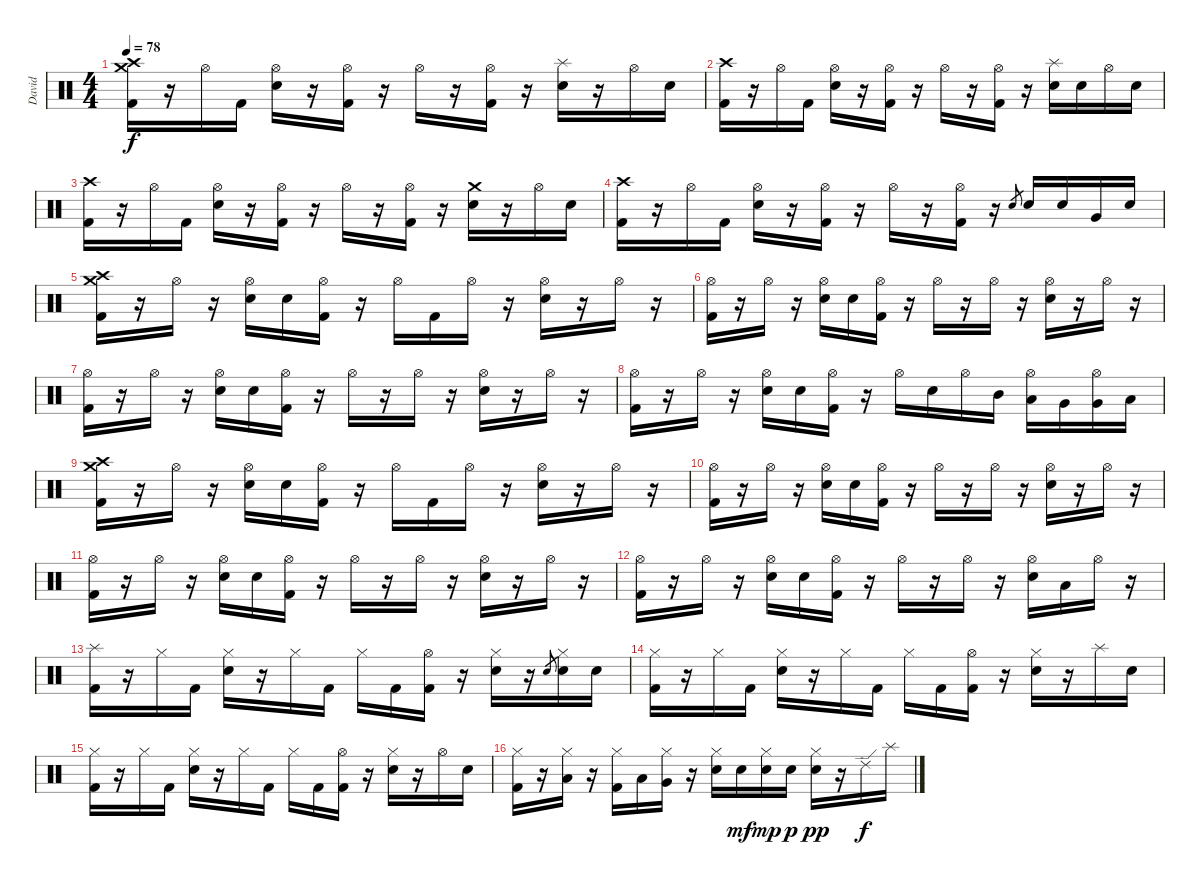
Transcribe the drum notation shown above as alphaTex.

\track ("David" "David") {instrument percussion}
\staff {score}
\articulation defaults
\ts (4 4)
\tempo 78
\clef neutral
\ks c
("Crash high (hit)" "Crash medium (hit)" "Kick (hit) 2").16{dy f} r.16 "Hi-Hat (open)".16 "Kick (hit) 2".16 ("Hi-Hat (open)" "Snare (hit) 2").16 r.16 ("Hi-Hat (open)" "Kick (hit) 2").16 r.16 "Hi-Hat (open)".16 r.16 ("Hi-Hat (open)" "Kick (hit) 2").16 r.16 ("Splash (hit)" "Snare (hit) 2").16 r.16 "Hi-Hat (open)".16 "Snare (hit) 2".16 |
("Crash high (hit)" "Kick (hit) 2").16 r.16 "Hi-Hat (open)".16 "Kick (hit) 2".16 ("Hi-Hat (open)" "Snare (hit) 2").16 r.16 ("Hi-Hat (open)" "Kick (hit) 2").16 r.16 "Hi-Hat (open)".16 r.16 ("Hi-Hat (open)" "Kick (hit) 2").16 r.16 ("Splash (hit)" "Snare (hit) 2").16 "Snare (hit) 2".16 "Hi-Hat (open)".16 "Snare (hit) 2".16 |
("Crash high (hit)" "Kick (hit) 2").16 r.16 "Hi-Hat (open)".16 "Kick (hit) 2".16 ("Hi-Hat (open)" "Snare (hit) 2").16 r.16 ("Hi-Hat (open)" "Kick (hit) 2").16 r.16 "Hi-Hat (open)".16 r.16 ("Hi-Hat (open)" "Kick (hit) 2").16 r.16 ("Crash medium (hit)" "Snare (hit) 2").16 r.16 "Hi-Hat (open)".16 "Snare (hit) 2".16 |
("Crash high (hit)" "Kick (hit) 2").16 r.16 "Hi-Hat (open)".16 "Kick (hit) 2".16 ("Hi-Hat (open)" "Snare (hit) 2").16 r.16 ("Hi-Hat (open)" "Kick (hit) 2").16 r.16 "Hi-Hat (open)".16 r.16 ("Hi-Hat (open)" "Kick (hit) 2").16 r.16 "Snare (hit) 2".8{gr} "Snare (hit) 2".16 "Snare (hit) 2".16 "Very Low Tom (hit)".16 "Snare (hit) 2"{x}.16 |
("Crash high (hit)" "Crash medium (hit)" "Kick (hit) 2").16 r.16 "Hi-Hat (open)".16 r.16 ("Hi-Hat (open)" "Snare (hit) 2").16 "Snare (hit) 2".16 ("Hi-Hat (open)" "Kick (hit) 2").16 r.16 "Hi-Hat (open)".16 "Kick (hit) 2".16 "Hi-Hat (open)".16 r.16 ("Hi-Hat (open)" "Snare (hit) 2").16 r.16 "Hi-Hat (open)".16 r.16 |
("Hi-Hat (open)" "Kick (hit) 2").16 r.16 "Hi-Hat (open)".16 r.16 ("Hi-Hat (open)" "Snare (hit) 2").16 "Snare (hit) 2".16 ("Hi-Hat (open)" "Kick (hit) 2").16 r.16 "Hi-Hat (open)".16 r.16 "Hi-Hat (open)".16 r.16 ("Hi-Hat (open)" "Snare (hit) 2").16 r.16 "Hi-Hat (open)".16 r.16 |
("Hi-Hat (open)" "Kick (hit) 2").16 r.16 "Hi-Hat (open)".16 r.16 ("Hi-Hat (open)" "Snare (hit) 2").16 "Snare (hit) 2".16 ("Hi-Hat (open)" "Kick (hit) 2").16 r.16 "Hi-Hat (open)".16 r.16 "Hi-Hat (open)".16 r.16 ("Hi-Hat (open)" "Snare (hit) 2").16 r.16 "Hi-Hat (open)".16 r.16 |
("Hi-Hat (open)" "Kick (hit) 2").16 r.16 "Hi-Hat (open)".16 r.16 ("Hi-Hat (open)" "Snare (hit) 2").16 "Snare (hit) 2".16 ("Hi-Hat (open)" "Kick (hit) 2").16 r.16 "Hi-Hat (open)".16 "Snare (hit) 2".16 "Hi-Hat (open)".16 "Mid Tom (hit)".16 ("Hi-Hat (open)" "Low Tom (hit)").16 "Very Low Tom (hit)".16 ("Hi-Hat (open)" "Very Low Tom (hit)").16 "Low Floor Tom (hit)".16 |
("Crash high (hit)" "Crash medium (hit)" "Kick (hit) 2").16 r.16 "Hi-Hat (open)".16 r.16 ("Hi-Hat (open)" "Snare (hit) 2").16 "Snare (hit) 2".16 ("Hi-Hat (open)" "Kick (hit) 2").16 r.16 "Hi-Hat (open)".16 "Kick (hit) 2".16 "Hi-Hat (open)".16 r.16 ("Hi-Hat (open)" "Snare (hit) 2").16 r.16 "Hi-Hat (open)".16 r.16 |
("Hi-Hat (open)" "Kick (hit) 2").16 r.16 "Hi-Hat (open)".16 r.16 ("Hi-Hat (open)" "Snare (hit) 2").16 "Snare (hit) 2".16 ("Hi-Hat (open)" "Kick (hit) 2").16 r.16 "Hi-Hat (open)".16 r.16 "Hi-Hat (open)".16 r.16 ("Hi-Hat (open)" "Snare (hit) 2").16 r.16 "Hi-Hat (open)".16 r.16 |
("Hi-Hat (open)" "Kick (hit) 2").16 r.16 "Hi-Hat (open)".16 r.16 ("Hi-Hat (open)" "Snare (hit) 2").16 "Snare (hit) 2".16 ("Hi-Hat (open)" "Kick (hit) 2").16 r.16 "Hi-Hat (open)".16 r.16 "Hi-Hat (open)".16 r.16 ("Hi-Hat (open)" "Snare (hit) 2").16 r.16 "Hi-Hat (open)".16 r.16 |
("Hi-Hat (open)" "Kick (hit) 2").16 r.16 "Hi-Hat (open)".16 r.16 ("Hi-Hat (open)" "Snare (hit) 2").16 "Snare (hit) 2".16 ("Hi-Hat (open)" "Kick (hit) 2").16 r.16 "Hi-Hat (open)".16 r.16 "Hi-Hat (open)".16 r.16 ("Hi-Hat (open)" "Snare (hit) 2").16 "Low Tom (hit)".16 "Hi-Hat (open)".16 r.16 |
("Splash (hit)" "Kick (hit) 2").16 r.16 "Hi-Hat (closed)".16 "Kick (hit) 2".16 ("Hi-Hat (closed)" "Snare (hit) 2").16 r.16 "Hi-Hat (closed)".16 "Kick (hit) 2".16 "Hi-Hat (closed)".16 "Kick (hit) 2".16 ("Hi-Hat (open)" "Kick (hit) 2").16 r.16 ("Hi-Hat (closed)" "Snare (hit) 2").16 r.16 "Snare (hit) 2".8{gr} ("Hi-Hat (closed)" "Snare (hit) 2").16 "Snare (hit) 2".16 |
("Hi-Hat (closed)" "Kick (hit) 2").16 r.16 "Hi-Hat (closed)".16 "Kick (hit) 2".16 ("Hi-Hat (closed)" "Snare (hit) 2").16 r.16 "Hi-Hat (closed)".16 "Kick (hit) 2".16 "Hi-Hat (closed)".16 "Kick (hit) 2".16 ("Hi-Hat (open)" "Kick (hit) 2").16 r.16 ("Hi-Hat (closed)" "Snare (hit) 2").16 r.16 "Splash (hit)".16 "Snare (hit) 2".16 |
("Hi-Hat (closed)" "Kick (hit) 2").16 r.16 "Hi-Hat (closed)".16 "Kick (hit) 2".16 ("Hi-Hat (closed)" "Snare (hit) 2").16 r.16 "Hi-Hat (closed)".16 "Kick (hit) 2".16 "Hi-Hat (closed)".16 "Kick (hit) 2".16 ("Hi-Hat (open)" "Kick (hit) 2").16 r.16 ("Hi-Hat (closed)" "Snare (hit) 2").16 r.16 "Hi-Hat (open)".16 "Snare (hit) 2".16 |
("Hi-Hat (closed)" "Kick (hit) 2").16 r.16 ("Hi-Hat (closed)" "Low Tom (hit)").16 r.16 ("Hi-Hat (closed)" "Kick (hit) 2").16 "Low Tom (hit)".16 ("Hi-Hat (closed)" "Very Low Tom (hit)").16 r.16 ("Hi-Hat (closed)" "Snare (hit) 2").16 "Snare (hit) 2".16{dy mf} ("Hi-Hat (closed)" "Snare (hit) 2").16{dy mp} "Snare (hit) 2".16{dy p} ("Hi-Hat (closed)" "Snare (hit) 2").16{dy pp} r.16 "Ride (edge) 2".16{dy f} "Splash (hit)".16
